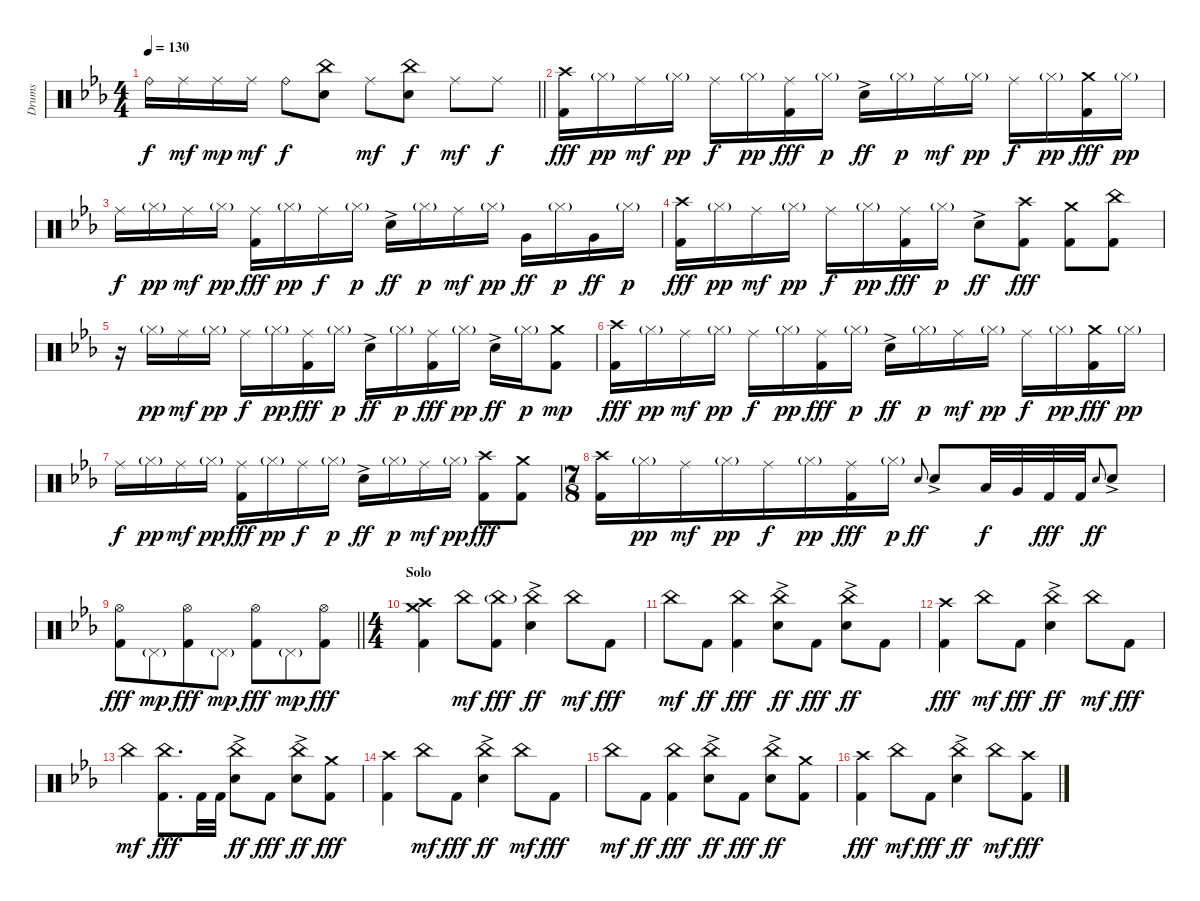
\track ("Drums" "Drums") {instrument percussion}
\staff {score}
\articulation defaults
\ts (4 4)
\tempo 130
\clef neutral
\barLineRight lightlight
\ks cminor "Ride (bell)".16{dy f} "Ride (middle)".16{dy mf} "Ride (middle)".16{dy mp} "Ride (middle)".16{dy mf} "Ride (bell)".8{dy f}
("China (hit)" "Electric Snare (hit)").8 "Ride (middle)".8{dy mf} ("China (hit)" "Electric Snare (hit)").8{dy f} "Ride (middle)".8{dy mf} "Ride (middle)".8{dy f} |
("Crash high (hit)" "Kick (hit) 2").16{dy fff} "Hi-Hat (closed)"{g}.16{dy pp} "Ride (middle)".16{dy mf} "Hi-Hat (closed)"{g}.16{dy pp} "Ride (middle)".16{dy f} "Hi-Hat (closed)"{g}.16{dy pp} ("Ride (middle)" "Kick (hit) 2").16{dy fff} "Hi-Hat (closed)"{g}.16{dy p} "Electric Snare (hit)"{ac}.16{dy ff} "Hi-Hat (closed)"{g}.16{dy p} "Ride (middle)".16{dy mf} "Hi-Hat (closed)"{g}.16{dy pp} "Ride (middle)".16{dy f} "Hi-Hat (closed)"{g}.16{dy pp} ("Crash medium (hit)" "Kick (hit) 2").16{dy fff} "Hi-Hat (closed)"{g}.16{dy pp} |
"Ride (middle)".16{dy f} "Hi-Hat (closed)"{g}.16{dy pp} "Ride (middle)".16{dy mf} "Hi-Hat (closed)"{g}.16{dy pp} ("Ride (middle)" "Kick (hit) 2").16{dy fff} "Hi-Hat (closed)"{g}.16{dy pp} "Ride (middle)".16{dy f} "Hi-Hat (closed)"{g}.16{dy p} "Electric Snare (hit)"{ac}.16{dy ff} "Hi-Hat (closed)"{g}.16{dy p} "Ride (middle)".16{dy mf} "Hi-Hat (closed)"{g}.16{dy pp} "Very Low Tom (hit)".16{dy ff} "Hi-Hat (closed)"{g}.16{dy p} "Very Low Tom (hit)".16{dy ff} "Hi-Hat (closed)"{g}.16{dy p} |
("Crash high (hit)" "Kick (hit) 2").16{dy fff} "Hi-Hat (closed)"{g}.16{dy pp} "Ride (middle)".16{dy mf} "Hi-Hat (closed)"{g}.16{dy pp} "Ride (middle)".16{dy f} "Hi-Hat (closed)"{g}.16{dy pp} ("Ride (middle)" "Kick (hit) 2").16{dy fff} "Hi-Hat (closed)"{g}.16{dy p} "Electric Snare (hit)"{ac}.8{dy ff} ("Crash high (hit)" "Kick (hit) 2").8{dy fff} ("Crash medium (hit)" "Kick (hit) 2").8 ("China (hit)" "Kick (hit) 2").8 |
r.16 "Hi-Hat (closed)"{g}.16{dy pp} "Ride (middle)".16{dy mf} "Hi-Hat (closed)"{g}.16{dy pp} "Ride (middle)".16{dy f} "Hi-Hat (closed)"{g}.16{dy pp} ("Ride (middle)" "Kick (hit) 2").16{dy fff} "Hi-Hat (closed)"{g}.16{dy p} "Electric Snare (hit)"{ac}.16{dy ff} "Hi-Hat (closed)"{g}.16{dy p} ("Ride (middle)" "Kick (hit) 2").16{dy fff} "Hi-Hat (closed)"{g}.16{dy pp} "Electric Snare (hit)"{ac}.16{dy ff} "Hi-Hat (closed)"{g}.16{dy p} ("Crash medium (hit)" "Kick (hit) 2").8{dy mp} |
("Crash high (hit)" "Kick (hit) 2").16{dy fff} "Hi-Hat (closed)"{g}.16{dy pp} "Ride (middle)".16{dy mf} "Hi-Hat (closed)"{g}.16{dy pp} "Ride (middle)".16{dy f} "Hi-Hat (closed)"{g}.16{dy pp} ("Ride (middle)" "Kick (hit) 2").16{dy fff} "Hi-Hat (closed)"{g}.16{dy p} "Electric Snare (hit)"{ac}.16{dy ff} "Hi-Hat (closed)"{g}.16{dy p} "Ride (middle)".16{dy mf} "Hi-Hat (closed)"{g}.16{dy pp} "Ride (middle)".16{dy f} "Hi-Hat (closed)"{g}.16{dy pp} ("Crash medium (hit)" "Kick (hit) 2").16{dy fff} "Hi-Hat (closed)"{g}.16{dy pp} |
"Ride (middle)".16{dy f} "Hi-Hat (closed)"{g}.16{dy pp} "Ride (middle)".16{dy mf} "Hi-Hat (closed)"{g}.16{dy pp} ("Ride (middle)" "Kick (hit) 2").16{dy fff} "Hi-Hat (closed)"{g}.16{dy pp} "Ride (middle)".16{dy f} "Hi-Hat (closed)"{g}.16{dy p} "Electric Snare (hit)"{ac}.16{dy ff} "Hi-Hat (closed)"{g}.16{dy p} "Ride (middle)".16{dy mf} "Hi-Hat (closed)"{g}.16{dy pp} ("Crash high (hit)" "Kick (hit) 2").8{dy fff} ("Crash medium (hit)" "Kick (hit) 2").8 |
\ts (7 8)
("Crash high (hit)" "Kick (hit) 2").16 "Hi-Hat (closed)"{g}.16{dy pp} "Ride (middle)".16{dy mf} "Hi-Hat (closed)"{g}.16{dy pp} "Ride (middle)".16{dy f} "Hi-Hat (closed)"{g}.16{dy pp} ("Ride (middle)" "Kick (hit) 2").16{dy fff} "Hi-Hat (closed)"{g}.16{dy p} "Electric Snare (hit)".8{gr onbeat dy ff} "Electric Snare (hit)"{ac}.8 "Low Tom (hit)".32{dy f} "Very Low Tom (hit)".32 "Kick (hit) 2".32{dy fff} "Kick (hit) 2".32 "Electric Snare (hit)".8{gr onbeat dy ff} "Electric Snare (hit)"{ac}.8 |
\barLineRight lightlight
("Hi-Hat (open)" "Kick (hit) 2").8{dy fff} "Pedal Hi-Hat (hit)"{g}.8{dy mp} ("Hi-Hat (open)" "Kick (hit) 2").8{dy fff} "Pedal Hi-Hat (hit)"{g}.8{dy mp} ("Hi-Hat (open)" "Kick (hit) 2").8{dy fff} "Pedal Hi-Hat (hit)"{g}.8{dy mp} ("Hi-Hat (open)" "Kick (hit) 2").8{dy fff} |
\ts (4 4)
\section ("" "Solo")
("Crash high (hit)" "Crash medium (hit)" "Kick (hit) 2").4 "China (hit)".8{dy mf} ("China (hit)"{g} "Kick (hit) 2").8{dy fff} ("China (hit)" "Electric Snare (hit)"{ac}).4{dy ff} "China (hit)".8{dy mf} "Kick (hit) 2".8{dy fff} |
"China (hit)".8{dy mf} "Kick (hit) 2".8{dy ff} ("China (hit)" "Kick (hit) 2").4{dy fff} ("China (hit)" "Electric Snare (hit)"{ac}).8{dy ff} "Kick (hit) 2".8{dy fff} ("China (hit)" "Electric Snare (hit)"{ac}).8{dy ff} "Kick (hit) 2".8 |
("Crash high (hit)" "Kick (hit) 2").4{dy fff} "China (hit)".8{dy mf} "Kick (hit) 2".8{dy fff} ("China (hit)" "Electric Snare (hit)"{ac}).4{dy ff} "China (hit)".8{dy mf} "Kick (hit) 2".8{dy fff} |
"China (hit)".4{dy mf} ("China (hit)" "Kick (hit) 2").8{d dy fff} "Kick (hit) 2".32 "Kick (hit) 2".32 ("China (hit)" "Electric Snare (hit)"{ac}).8{dy ff} "Kick (hit) 2".8{dy fff} ("China (hit)" "Electric Snare (hit)"{ac}).8{dy ff} ("Crash medium (hit)" "Kick (hit) 2").8{dy fff} |
("Crash high (hit)" "Kick (hit) 2").4 "China (hit)".8{dy mf} "Kick (hit) 2".8{dy fff} ("China (hit)" "Electric Snare (hit)"{ac}).4{dy ff} "China (hit)".8{dy mf} "Kick (hit) 2".8{dy fff} |
"China (hit)".8{dy mf} "Kick (hit) 2".8{dy ff} ("China (hit)" "Kick (hit) 2").4{dy fff} ("China (hit)" "Electric Snare (hit)"{ac}).8{dy ff} "Kick (hit) 2".8{dy fff} ("China (hit)" "Electric Snare (hit)"{ac}).8{dy ff} ("Crash medium (hit)" "Kick (hit) 2").8 |
("Crash high (hit)" "Kick (hit) 2").4{dy fff} "China (hit)".8{dy mf} "Kick (hit) 2".8{dy fff} ("China (hit)" "Electric Snare (hit)"{ac}).4{dy ff} "China (hit)".8{dy mf} ("Crash high (hit)" "Kick (hit) 2").8{dy fff}
